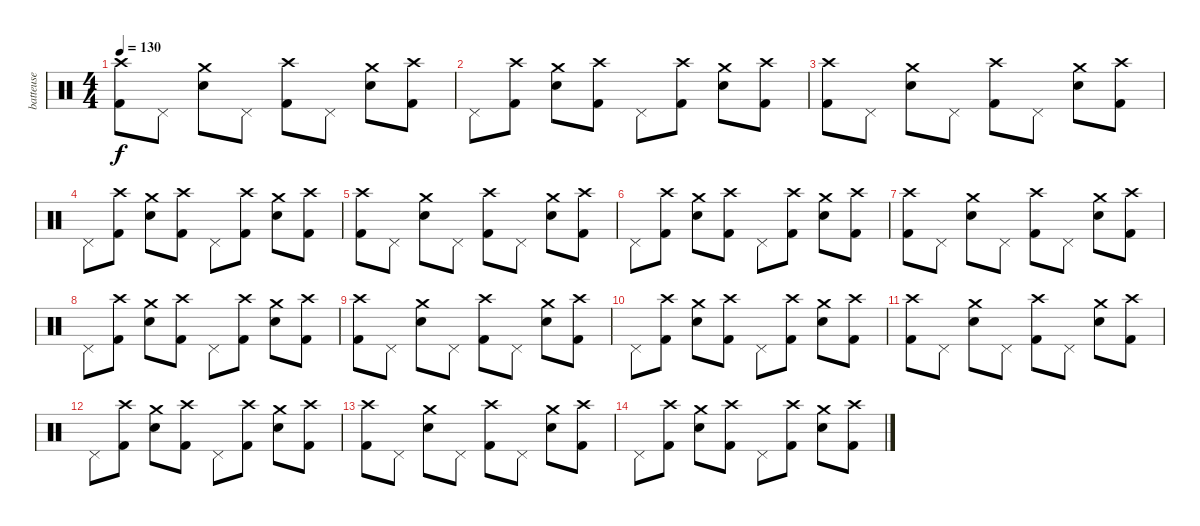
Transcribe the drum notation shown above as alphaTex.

\track ("batteuse" "batteuse") {instrument percussion}
\staff {score}
\articulation defaults
\ts (4 4)
\tempo 130
\clef neutral
\ks c
("Crash high (hit)" "Kick (hit) 2").8{dy f} "Pedal Hi-Hat (hit)".8 ("Crash medium (hit)" "Snare (hit) 2").8 "Pedal Hi-Hat (hit)".8 ("Crash high (hit)" "Kick (hit) 2").8 "Pedal Hi-Hat (hit)".8 ("Crash medium (hit)" "Snare (hit) 2").8 ("Crash high (hit)" "Kick (hit) 2").8 |
"Pedal Hi-Hat (hit)".8 ("Crash high (hit)" "Kick (hit) 2").8 ("Crash medium (hit)" "Snare (hit) 2").8 ("Crash high (hit)" "Kick (hit) 2").8 "Pedal Hi-Hat (hit)".8 ("Crash high (hit)" "Kick (hit) 2").8 ("Crash medium (hit)" "Snare (hit) 2").8 ("Crash high (hit)" "Kick (hit) 2").8 |
("Crash high (hit)" "Kick (hit) 2").8 "Pedal Hi-Hat (hit)".8 ("Crash medium (hit)" "Snare (hit) 2").8 "Pedal Hi-Hat (hit)".8 ("Crash high (hit)" "Kick (hit) 2").8 "Pedal Hi-Hat (hit)".8 ("Crash medium (hit)" "Snare (hit) 2").8 ("Crash high (hit)" "Kick (hit) 2").8 |
"Pedal Hi-Hat (hit)".8 ("Crash high (hit)" "Kick (hit) 2").8 ("Crash medium (hit)" "Snare (hit) 2").8 ("Crash high (hit)" "Kick (hit) 2").8 "Pedal Hi-Hat (hit)".8 ("Crash high (hit)" "Kick (hit) 2").8 ("Crash medium (hit)" "Snare (hit) 2").8 ("Crash high (hit)" "Kick (hit) 2").8 |
("Crash high (hit)" "Kick (hit) 2").8 "Pedal Hi-Hat (hit)".8 ("Crash medium (hit)" "Snare (hit) 2").8 "Pedal Hi-Hat (hit)".8 ("Crash high (hit)" "Kick (hit) 2").8 "Pedal Hi-Hat (hit)".8 ("Crash medium (hit)" "Snare (hit) 2").8 ("Crash high (hit)" "Kick (hit) 2").8 |
"Pedal Hi-Hat (hit)".8 ("Crash high (hit)" "Kick (hit) 2").8 ("Crash medium (hit)" "Snare (hit) 2").8 ("Crash high (hit)" "Kick (hit) 2").8 "Pedal Hi-Hat (hit)".8 ("Crash high (hit)" "Kick (hit) 2").8 ("Crash medium (hit)" "Snare (hit) 2").8 ("Crash high (hit)" "Kick (hit) 2").8 |
("Crash high (hit)" "Kick (hit) 2").8 "Pedal Hi-Hat (hit)".8 ("Crash medium (hit)" "Snare (hit) 2").8 "Pedal Hi-Hat (hit)".8 ("Crash high (hit)" "Kick (hit) 2").8 "Pedal Hi-Hat (hit)".8 ("Crash medium (hit)" "Snare (hit) 2").8 ("Crash high (hit)" "Kick (hit) 2").8 |
"Pedal Hi-Hat (hit)".8 ("Crash high (hit)" "Kick (hit) 2").8 ("Crash medium (hit)" "Snare (hit) 2").8 ("Crash high (hit)" "Kick (hit) 2").8 "Pedal Hi-Hat (hit)".8 ("Crash high (hit)" "Kick (hit) 2").8 ("Crash medium (hit)" "Snare (hit) 2").8 ("Crash high (hit)" "Kick (hit) 2").8 |
("Crash high (hit)" "Kick (hit) 2").8 "Pedal Hi-Hat (hit)".8 ("Crash medium (hit)" "Snare (hit) 2").8 "Pedal Hi-Hat (hit)".8 ("Crash high (hit)" "Kick (hit) 2").8 "Pedal Hi-Hat (hit)".8 ("Crash medium (hit)" "Snare (hit) 2").8 ("Crash high (hit)" "Kick (hit) 2").8 |
"Pedal Hi-Hat (hit)".8 ("Crash high (hit)" "Kick (hit) 2").8 ("Crash medium (hit)" "Snare (hit) 2").8 ("Crash high (hit)" "Kick (hit) 2").8 "Pedal Hi-Hat (hit)".8 ("Crash high (hit)" "Kick (hit) 2").8 ("Crash medium (hit)" "Snare (hit) 2").8 ("Crash high (hit)" "Kick (hit) 2").8 |
("Crash high (hit)" "Kick (hit) 2").8 "Pedal Hi-Hat (hit)".8 ("Crash medium (hit)" "Snare (hit) 2").8 "Pedal Hi-Hat (hit)".8 ("Crash high (hit)" "Kick (hit) 2").8 "Pedal Hi-Hat (hit)".8 ("Crash medium (hit)" "Snare (hit) 2").8 ("Crash high (hit)" "Kick (hit) 2").8 |
"Pedal Hi-Hat (hit)".8 ("Crash high (hit)" "Kick (hit) 2").8 ("Crash medium (hit)" "Snare (hit) 2").8 ("Crash high (hit)" "Kick (hit) 2").8 "Pedal Hi-Hat (hit)".8 ("Crash high (hit)" "Kick (hit) 2").8 ("Crash medium (hit)" "Snare (hit) 2").8 ("Crash high (hit)" "Kick (hit) 2").8 |
("Crash high (hit)" "Kick (hit) 2").8 "Pedal Hi-Hat (hit)".8 ("Crash medium (hit)" "Snare (hit) 2").8 "Pedal Hi-Hat (hit)".8 ("Crash high (hit)" "Kick (hit) 2").8 "Pedal Hi-Hat (hit)".8 ("Crash medium (hit)" "Snare (hit) 2").8 ("Crash high (hit)" "Kick (hit) 2").8 |
"Pedal Hi-Hat (hit)".8 ("Crash high (hit)" "Kick (hit) 2").8 ("Crash medium (hit)" "Snare (hit) 2").8 ("Crash high (hit)" "Kick (hit) 2").8 "Pedal Hi-Hat (hit)".8 ("Crash high (hit)" "Kick (hit) 2").8 ("Crash medium (hit)" "Snare (hit) 2").8 ("Crash high (hit)" "Kick (hit) 2").8
